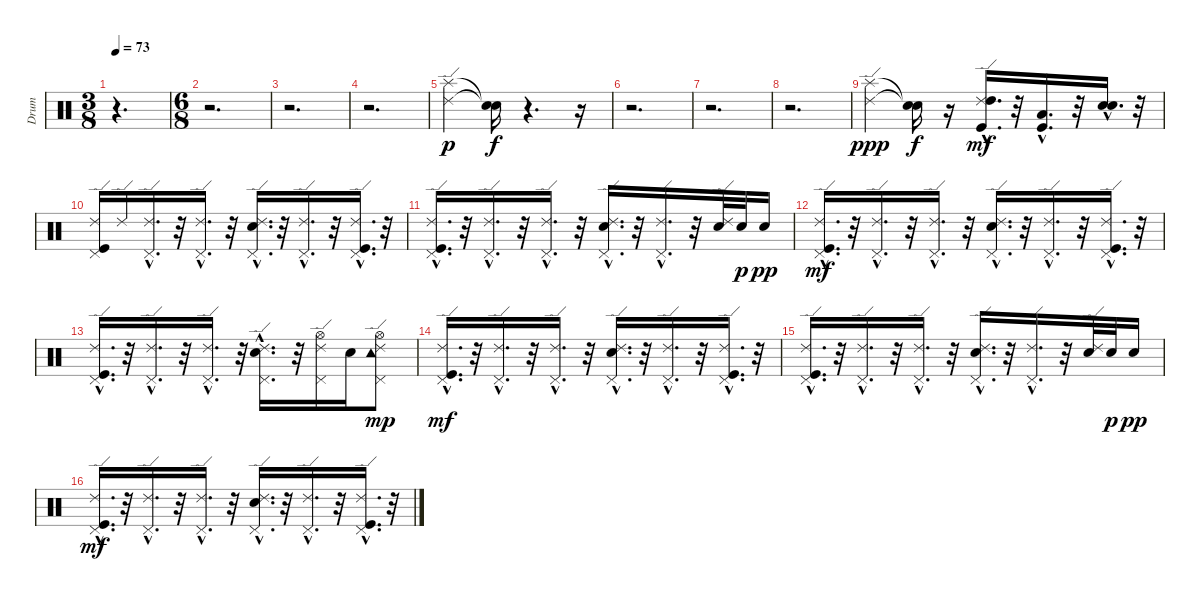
\track ("Drum" "Drum") {instrument percussion}
\staff {score}
\articulation defaults
\ts (3 8)
\tempo 73
\clef neutral
\ks c
r.4{d dy p} |
\ts (6 8)
r.2{d} |
r.2{d} |
r.2{d} |
("Splash (hit)" "Ride (edge) 2").4 ("Snare (hit)"{t} "Snare (hit)"{t}).16{dy f} r.4{d} r.16 |
r.2{d} |
r.2{d} |
r.2{d} |
("Ride (edge) 2" "Splash (hit)").4{dy ppp} ("Snare (hit)"{t} "Snare (hit)"{t}).16{dy f} r.16 ("Ride (edge) 2"{hac} "Kick (hit)"{hac} "High Tom (hit)"{hac}).16{d dy mf} r.32 ("Kick (hit)"{hac} "Low Tom (hit)"{hac}).16{d} r.32 ("Electric Snare (hit)"{hac} "Snare (hit) 2"{hac}).16{d} r.32 |
("Kick (hit)" "Pedal Hi-Hat (hit)" "Ride (edge) 2").16 "Ride (edge) 2".16 ("Pedal Hi-Hat (hit)"{hac} "Ride (edge) 2"{hac}).16{d} r.32 ("Ride (edge) 2"{hac} "Pedal Hi-Hat (hit)"{hac}).16{d} r.32 ("Ride (edge) 2"{hac} "Pedal Hi-Hat (hit)"{hac} "Snare (hit) 2"{hac}).16{d} r.32 ("Ride (edge) 2"{hac} "Pedal Hi-Hat (hit)"{hac}).16{d} r.32 ("Kick (hit)"{hac} "Pedal Hi-Hat (hit)"{hac} "Ride (edge) 2"{hac}).16{d} r.32 |
("Ride (edge) 2"{hac} "Pedal Hi-Hat (hit)"{hac} "Kick (hit)"{hac}).16{d} r.32 ("Ride (edge) 2"{hac} "Pedal Hi-Hat (hit)"{hac}).16{d} r.32 ("Ride (edge) 2"{hac} "Pedal Hi-Hat (hit)"{hac}).16{d} r.32 ("Ride (edge) 2"{hac} "Pedal Hi-Hat (hit)"{hac} "Snare (hit) 2"{hac}).16{d} r.32 ("Ride (edge) 2"{hac} "Pedal Hi-Hat (hit)"{hac}).16{d} r.32 ("Ride (edge) 2" "Snare (hit) 2").32 "Snare (hit) 2".32{dy p} "Snare (hit) 2".16{dy pp} |
("Ride (edge) 2"{hac} "Pedal Hi-Hat (hit)"{hac} "Kick (hit)"{hac}).16{d dy mf} r.32 ("Ride (edge) 2"{hac} "Pedal Hi-Hat (hit)"{hac}).16{d} r.32 ("Ride (edge) 2"{hac} "Pedal Hi-Hat (hit)"{hac}).16{d} r.32 ("Ride (edge) 2"{hac} "Pedal Hi-Hat (hit)"{hac} "Snare (hit) 2"{hac}).16{d} r.32 ("Ride (edge) 2"{hac} "Pedal Hi-Hat (hit)"{hac}).16{d} r.32 ("Ride (edge) 2"{hac} "Pedal Hi-Hat (hit)"{hac} "Kick (hit)"{hac}).16{d} r.32 |
("Ride (edge) 2"{hac} "Kick (hit)"{hac} "Pedal Hi-Hat (hit)"{hac}).16{d} r.32 ("Ride (edge) 2"{hac} "Pedal Hi-Hat (hit)"{hac}).16{d} r.32 ("Pedal Hi-Hat (hit)"{hac} "Ride (edge) 2"{hac}).16{d} r.32 ("Snare (hit) 2"{hac} "Ride (edge) 2"{hac} "Pedal Hi-Hat (hit)"{hac}).16{d} r.32 ("Hi-Hat (open)" "Ride (edge) 2" "Pedal Hi-Hat (hit)").16 "Snare (hit) 2".16 ("Hi-Hat (open)" "Ride (edge) 2" "Pedal Hi-Hat (hit)" "Tambourine (hit)").8{dy mp} |
("Ride (edge) 2"{hac} "Pedal Hi-Hat (hit)"{hac} "Kick (hit)"{hac}).16{d dy mf} r.32 ("Pedal Hi-Hat (hit)"{hac} "Ride (edge) 2"{hac}).16{d} r.32 ("Ride (edge) 2"{hac} "Pedal Hi-Hat (hit)"{hac}).16{d} r.32 ("Snare (hit) 2"{hac} "Pedal Hi-Hat (hit)"{hac} "Ride (edge) 2"{hac}).16{d} r.32 ("Ride (edge) 2"{hac} "Pedal Hi-Hat (hit)"{hac}).16{d} r.32 ("Pedal Hi-Hat (hit)"{hac} "Ride (edge) 2"{hac} "Kick (hit)"{hac}).16{d} r.32 |
("Kick (hit)"{hac} "Pedal Hi-Hat (hit)"{hac} "Ride (edge) 2"{hac}).16{d} r.32 ("Pedal Hi-Hat (hit)"{hac} "Ride (edge) 2"{hac}).16{d} r.32 ("Pedal Hi-Hat (hit)"{hac} "Ride (edge) 2"{hac}).16{d} r.32 ("Snare (hit) 2"{hac} "Pedal Hi-Hat (hit)"{hac} "Ride (edge) 2"{hac}).16{d} r.32 ("Pedal Hi-Hat (hit)"{hac} "Ride (edge) 2"{hac}).16{d} r.32 ("Snare (hit) 2" "Ride (edge) 2").32 "Snare (hit) 2".32{dy p} "Snare (hit) 2".16{dy pp} |
("Kick (hit)"{hac} "Pedal Hi-Hat (hit)"{hac} "Ride (edge) 2"{hac}).16{d dy mf} r.32 ("Pedal Hi-Hat (hit)"{hac} "Ride (edge) 2"{hac}).16{d} r.32 ("Pedal Hi-Hat (hit)"{hac} "Ride (edge) 2"{hac}).16{d} r.32 ("Snare (hit) 2"{hac} "Pedal Hi-Hat (hit)"{hac} "Ride (edge) 2"{hac}).16{d} r.32 ("Pedal Hi-Hat (hit)"{hac} "Ride (edge) 2"{hac}).16{d} r.32 ("Kick (hit)"{hac} "Pedal Hi-Hat (hit)"{hac} "Ride (edge) 2"{hac}).16{d} r.32
